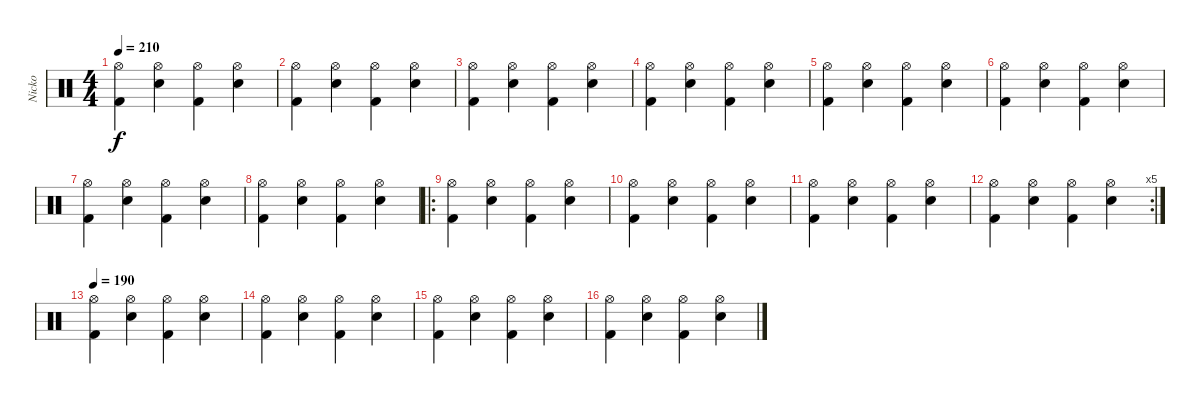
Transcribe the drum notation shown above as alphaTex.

\track ("Nicko" "Nicko") {instrument percussion}
\staff {score}
\articulation defaults
\ts (4 4)
\tempo 210
\clef neutral
\ks c
("Hi-Hat (open)" "Kick (hit) 2").4{dy f} ("Hi-Hat (open)" "Electric Snare (hit)").4 ("Hi-Hat (open)" "Kick (hit) 2").4 ("Hi-Hat (open)" "Electric Snare (hit)").4 |
("Hi-Hat (open)" "Kick (hit) 2").4 ("Hi-Hat (open)" "Electric Snare (hit)").4 ("Hi-Hat (open)" "Kick (hit) 2").4 ("Hi-Hat (open)" "Electric Snare (hit)").4 |
("Hi-Hat (open)" "Kick (hit) 2").4 ("Hi-Hat (open)" "Electric Snare (hit)").4 ("Hi-Hat (open)" "Kick (hit) 2").4 ("Hi-Hat (open)" "Electric Snare (hit)").4 |
("Hi-Hat (open)" "Kick (hit) 2").4 ("Hi-Hat (open)" "Electric Snare (hit)").4 ("Hi-Hat (open)" "Kick (hit) 2").4 ("Hi-Hat (open)" "Electric Snare (hit)").4 |
("Hi-Hat (open)" "Kick (hit) 2").4 ("Hi-Hat (open)" "Electric Snare (hit)").4 ("Hi-Hat (open)" "Kick (hit) 2").4 ("Hi-Hat (open)" "Electric Snare (hit)").4 |
("Hi-Hat (open)" "Kick (hit) 2").4 ("Hi-Hat (open)" "Electric Snare (hit)").4 ("Hi-Hat (open)" "Kick (hit) 2").4 ("Hi-Hat (open)" "Electric Snare (hit)").4 |
("Hi-Hat (open)" "Kick (hit) 2").4 ("Hi-Hat (open)" "Electric Snare (hit)").4 ("Hi-Hat (open)" "Kick (hit) 2").4 ("Hi-Hat (open)" "Electric Snare (hit)").4 |
("Hi-Hat (open)" "Kick (hit) 2").4 ("Hi-Hat (open)" "Electric Snare (hit)").4 ("Hi-Hat (open)" "Kick (hit) 2").4 ("Hi-Hat (open)" "Electric Snare (hit)").4 |
\ro
("Hi-Hat (open)" "Kick (hit) 2").4 ("Hi-Hat (open)" "Electric Snare (hit)").4 ("Hi-Hat (open)" "Kick (hit) 2").4 ("Hi-Hat (open)" "Electric Snare (hit)").4 |
("Hi-Hat (open)" "Kick (hit) 2").4 ("Hi-Hat (open)" "Electric Snare (hit)").4 ("Hi-Hat (open)" "Kick (hit) 2").4 ("Hi-Hat (open)" "Electric Snare (hit)").4 |
("Hi-Hat (open)" "Kick (hit) 2").4 ("Hi-Hat (open)" "Electric Snare (hit)").4 ("Hi-Hat (open)" "Kick (hit) 2").4 ("Hi-Hat (open)" "Electric Snare (hit)").4 |
\rc 5
("Hi-Hat (open)" "Kick (hit) 2").4 ("Hi-Hat (open)" "Electric Snare (hit)").4 ("Hi-Hat (open)" "Kick (hit) 2").4 ("Hi-Hat (open)" "Electric Snare (hit)").4 |
\tempo 190
("Hi-Hat (open)" "Kick (hit) 2").4 ("Hi-Hat (open)" "Electric Snare (hit)").4 ("Hi-Hat (open)" "Kick (hit) 2").4 ("Hi-Hat (open)" "Electric Snare (hit)").4 |
("Hi-Hat (open)" "Kick (hit) 2").4 ("Hi-Hat (open)" "Electric Snare (hit)").4 ("Hi-Hat (open)" "Kick (hit) 2").4 ("Hi-Hat (open)" "Electric Snare (hit)").4 |
("Hi-Hat (open)" "Kick (hit) 2").4 ("Hi-Hat (open)" "Electric Snare (hit)").4 ("Hi-Hat (open)" "Kick (hit) 2").4 ("Hi-Hat (open)" "Electric Snare (hit)").4 |
("Hi-Hat (open)" "Kick (hit) 2").4 ("Hi-Hat (open)" "Electric Snare (hit)").4 ("Hi-Hat (open)" "Kick (hit) 2").4 ("Hi-Hat (open)" "Electric Snare (hit)").4
